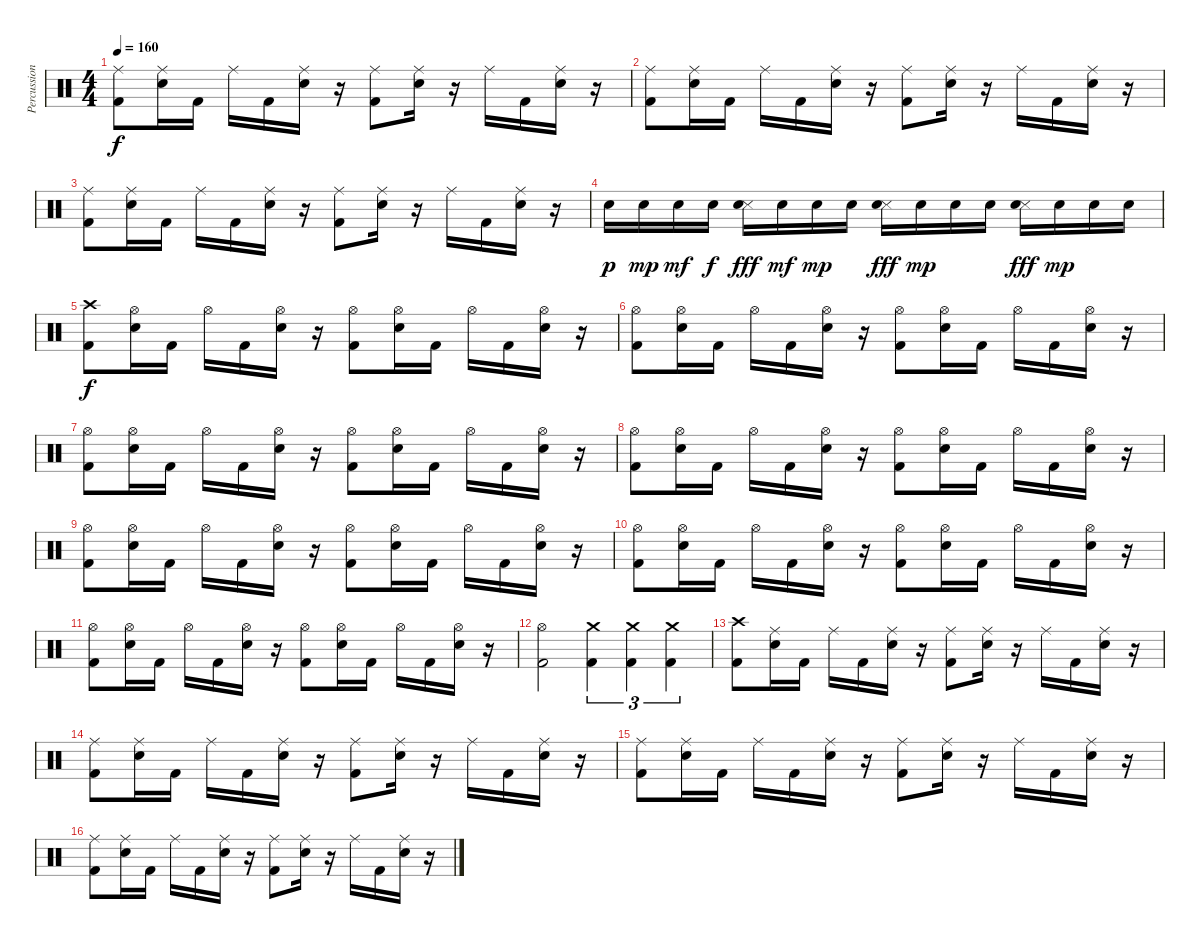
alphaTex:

\track ("Percussions" "Percussion") {instrument percussion}
\staff {score}
\articulation defaults
\ts (4 4)
\tempo 160
\clef neutral
\ks c
("Ride (middle)" "Kick (hit) 2").8{dy f} ("Ride (middle)" "Snare (hit) 2").16 "Kick (hit) 2".16 "Ride (middle)".16 "Kick (hit) 2".16 ("Ride (middle)" "Snare (hit) 2").16 r.16 ("Ride (middle)" "Kick (hit) 2").8 ("Ride (middle)" "Snare (hit) 2").16 r.16 "Ride (middle)".16 "Kick (hit) 2".16 ("Ride (middle)" "Snare (hit) 2").16 r.16 |
("Ride (middle)" "Kick (hit) 2").8 ("Ride (middle)" "Snare (hit) 2").16 "Kick (hit) 2".16 "Ride (middle)".16 "Kick (hit) 2".16 ("Ride (middle)" "Snare (hit) 2").16 r.16 ("Ride (middle)" "Kick (hit) 2").8 ("Ride (middle)" "Snare (hit) 2").16 r.16 "Ride (middle)".16 "Kick (hit) 2".16 ("Ride (middle)" "Snare (hit) 2").16 r.16 |
("Ride (middle)" "Kick (hit) 2").8 ("Ride (middle)" "Snare (hit) 2").16 "Kick (hit) 2".16 "Ride (middle)".16 "Kick (hit) 2".16 ("Ride (middle)" "Snare (hit) 2").16 r.16 ("Ride (middle)" "Kick (hit) 2").8 ("Ride (middle)" "Snare (hit) 2").16 r.16 "Ride (middle)".16 "Kick (hit) 2".16 ("Ride (middle)" "Snare (hit) 2").16 r.16 |
"Snare (hit) 2".16{dy p} "Snare (hit) 2".16{dy mp} "Snare (hit) 2".16{dy mf} "Snare (hit) 2".16{dy f} ("Snare (side stick) 3" "Snare (hit) 2").16{dy fff} "Snare (hit) 2".16{dy mf} "Snare (hit) 2".16{dy mp} "Snare (hit) 2".16 ("Snare (side stick) 3" "Snare (hit) 2").16{dy fff} "Snare (hit) 2".16{dy mp} "Snare (hit) 2".16 "Snare (hit) 2".16 ("Snare (side stick) 3" "Snare (hit) 2").16{dy fff} "Snare (hit) 2".16{dy mp} "Snare (hit) 2".16 "Snare (hit) 2".16 |
("Crash high (hit)" "Kick (hit) 2").8{dy f} ("Hi-Hat (open)" "Snare (hit) 2").16 "Kick (hit) 2".16 "Hi-Hat (open)".16 "Kick (hit) 2".16 ("Hi-Hat (open)" "Snare (hit) 2").16 r.16 ("Hi-Hat (open)" "Kick (hit) 2").8 ("Hi-Hat (open)" "Snare (hit) 2").16 "Kick (hit) 2".16 "Hi-Hat (open)".16 "Kick (hit) 2".16 ("Hi-Hat (open)" "Snare (hit) 2").16 r.16 |
("Hi-Hat (open)" "Kick (hit) 2").8 ("Hi-Hat (open)" "Snare (hit) 2").16 "Kick (hit) 2".16 "Hi-Hat (open)".16 "Kick (hit) 2".16 ("Hi-Hat (open)" "Snare (hit) 2").16 r.16 ("Hi-Hat (open)" "Kick (hit) 2").8 ("Hi-Hat (open)" "Snare (hit) 2").16 "Kick (hit) 2".16 "Hi-Hat (open)".16 "Kick (hit) 2".16 ("Hi-Hat (open)" "Snare (hit) 2").16 r.16 |
("Hi-Hat (open)" "Kick (hit) 2").8 ("Hi-Hat (open)" "Snare (hit) 2").16 "Kick (hit) 2".16 "Hi-Hat (open)".16 "Kick (hit) 2".16 ("Hi-Hat (open)" "Snare (hit) 2").16 r.16 ("Hi-Hat (open)" "Kick (hit) 2").8 ("Hi-Hat (open)" "Snare (hit) 2").16 "Kick (hit) 2".16 "Hi-Hat (open)".16 "Kick (hit) 2".16 ("Hi-Hat (open)" "Snare (hit) 2").16 r.16 |
("Hi-Hat (open)" "Kick (hit) 2").8 ("Hi-Hat (open)" "Snare (hit) 2").16 "Kick (hit) 2".16 "Hi-Hat (open)".16 "Kick (hit) 2".16 ("Hi-Hat (open)" "Snare (hit) 2").16 r.16 ("Hi-Hat (open)" "Kick (hit) 2").8 ("Hi-Hat (open)" "Snare (hit) 2").16 "Kick (hit) 2".16 "Hi-Hat (open)".16 "Kick (hit) 2".16 ("Hi-Hat (open)" "Snare (hit) 2").16 r.16 |
("Hi-Hat (open)" "Kick (hit) 2").8 ("Hi-Hat (open)" "Snare (hit) 2").16 "Kick (hit) 2".16 "Hi-Hat (open)".16 "Kick (hit) 2".16 ("Hi-Hat (open)" "Snare (hit) 2").16 r.16 ("Hi-Hat (open)" "Kick (hit) 2").8 ("Hi-Hat (open)" "Snare (hit) 2").16 "Kick (hit) 2".16 "Hi-Hat (open)".16 "Kick (hit) 2".16 ("Hi-Hat (open)" "Snare (hit) 2").16 r.16 |
("Hi-Hat (open)" "Kick (hit) 2").8 ("Hi-Hat (open)" "Snare (hit) 2").16 "Kick (hit) 2".16 "Hi-Hat (open)".16 "Kick (hit) 2".16 ("Hi-Hat (open)" "Snare (hit) 2").16 r.16 ("Hi-Hat (open)" "Kick (hit) 2").8 ("Hi-Hat (open)" "Snare (hit) 2").16 "Kick (hit) 2".16 "Hi-Hat (open)".16 "Kick (hit) 2".16 ("Hi-Hat (open)" "Snare (hit) 2").16 r.16 |
("Hi-Hat (open)" "Kick (hit) 2").8 ("Hi-Hat (open)" "Snare (hit) 2").16 "Kick (hit) 2".16 "Hi-Hat (open)".16 "Kick (hit) 2".16 ("Hi-Hat (open)" "Snare (hit) 2").16 r.16 ("Hi-Hat (open)" "Kick (hit) 2").8 ("Hi-Hat (open)" "Snare (hit) 2").16 "Kick (hit) 2".16 "Hi-Hat (open)".16 "Kick (hit) 2".16 ("Hi-Hat (open)" "Snare (hit) 2").16 r.16 |
("Hi-Hat (open)" "Kick (hit) 2").2 ("Crash medium (hit)" "Kick (hit) 2").4{tu (3 2)} ("Crash medium (hit)" "Kick (hit) 2").4{tu (3 2)} ("Crash medium (hit)" "Kick (hit) 2").4{tu (3 2)} |
("Crash high (hit)" "Kick (hit) 2").8 ("Ride (middle)" "Snare (hit) 2").16 "Kick (hit) 2".16 "Ride (middle)".16 "Kick (hit) 2".16 ("Ride (middle)" "Snare (hit) 2").16 r.16 ("Ride (middle)" "Kick (hit) 2").8 ("Ride (middle)" "Snare (hit) 2").16 r.16 "Ride (middle)".16 "Kick (hit) 2".16 ("Ride (middle)" "Snare (hit) 2").16 r.16 |
("Ride (middle)" "Kick (hit) 2").8 ("Ride (middle)" "Snare (hit) 2").16 "Kick (hit) 2".16 "Ride (middle)".16 "Kick (hit) 2".16 ("Ride (middle)" "Snare (hit) 2").16 r.16 ("Ride (middle)" "Kick (hit) 2").8 ("Ride (middle)" "Snare (hit) 2").16 r.16 "Ride (middle)".16 "Kick (hit) 2".16 ("Ride (middle)" "Snare (hit) 2").16 r.16 |
("Ride (middle)" "Kick (hit) 2").8 ("Ride (middle)" "Snare (hit) 2").16 "Kick (hit) 2".16 "Ride (middle)".16 "Kick (hit) 2".16 ("Ride (middle)" "Snare (hit) 2").16 r.16 ("Ride (middle)" "Kick (hit) 2").8 ("Ride (middle)" "Snare (hit) 2").16 r.16 "Ride (middle)".16 "Kick (hit) 2".16 ("Ride (middle)" "Snare (hit) 2").16 r.16 |
("Ride (middle)" "Kick (hit) 2").8 ("Ride (middle)" "Snare (hit) 2").16 "Kick (hit) 2".16 "Ride (middle)".16 "Kick (hit) 2".16 ("Ride (middle)" "Snare (hit) 2").16 r.16 ("Ride (middle)" "Kick (hit) 2").8 ("Ride (middle)" "Snare (hit) 2").16 r.16 "Ride (middle)".16 "Kick (hit) 2".16 ("Ride (middle)" "Snare (hit) 2").16 r.16
